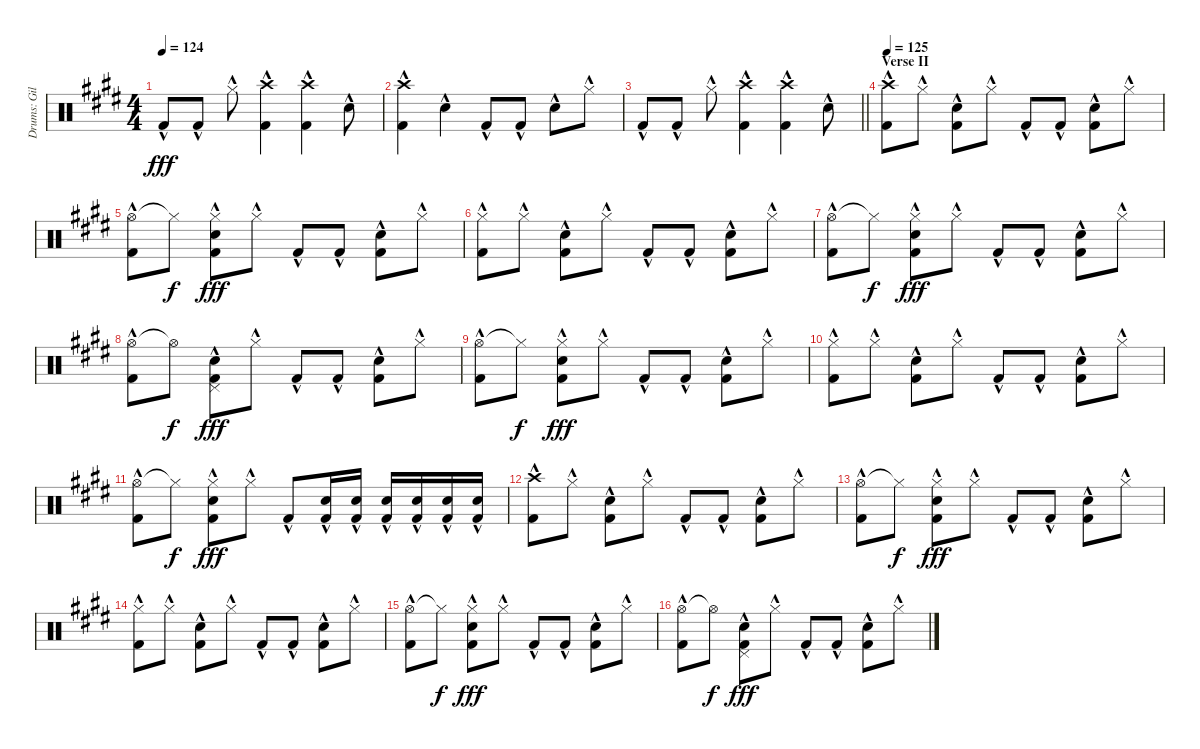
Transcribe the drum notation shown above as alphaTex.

\track ("Drums: Gil" "Drums: Gil") {instrument percussion}
\staff {score}
\articulation defaults
\ts (4 4)
\tempo 124
\clef neutral
\ks e "Kick (hit) 2"{hac}.8{dy fff} "Kick (hit) 2"{hac}.8 "Hi-Hat (closed)"{hac}.8
("Crash high (hit)"{hac} "Kick (hit) 2"{hac}).4 ("Crash high (hit)"{hac} "Kick (hit) 2"{hac}).4 "Snare (hit) 2"{hac}.8 |
("Crash high (hit)"{hac} "Kick (hit) 2"{hac}).4 "Snare (hit) 2"{hac}.4 "Kick (hit) 2"{hac}.8 "Kick (hit) 2"{hac}.8 "Snare (hit) 2"{hac}.8 "Hi-Hat (closed)"{hac}.8 |
\barLineRight lightlight "Kick (hit) 2"{hac}.8 "Kick (hit) 2"{hac}.8 "Hi-Hat (closed)"{hac}.8
("Crash high (hit)"{hac} "Kick (hit) 2"{hac}).4 ("Crash high (hit)"{hac} "Kick (hit) 2"{hac}).4 "Snare (hit) 2"{hac}.8 |
\section ("" "Verse II")
\tempo 125
("Crash high (hit)"{hac} "Kick (hit) 2"{hac}).8 "Hi-Hat (closed)"{hac}.8 ("Snare (hit) 2"{hac} "Kick (hit) 2"{hac}).8 "Hi-Hat (closed)"{hac}.8 "Kick (hit) 2"{hac}.8 "Kick (hit) 2"{hac}.8 ("Snare (hit) 2"{hac} "Kick (hit) 2"{hac}).8 "Hi-Hat (closed)"{hac}.8 |
("Hi-Hat (open)"{hac} "Kick (hit) 2"{hac}).8 "Hi-Hat (closed)"{t}.8{dy f} ("Hi-Hat (closed)"{hac} "Snare (hit) 2"{hac} "Kick (hit) 2"{hac}).8{dy fff} "Hi-Hat (closed)"{hac}.8 "Kick (hit) 2"{hac}.8 "Kick (hit) 2"{hac}.8 ("Snare (hit) 2"{hac} "Kick (hit) 2"{hac}).8 "Hi-Hat (closed)"{hac}.8 |
("Hi-Hat (closed)"{hac} "Kick (hit) 2"{hac}).8 "Hi-Hat (closed)"{hac}.8 ("Snare (hit) 2"{hac} "Kick (hit) 2"{hac}).8 "Hi-Hat (closed)"{hac}.8 "Kick (hit) 2"{hac}.8 "Kick (hit) 2"{hac}.8 ("Snare (hit) 2"{hac} "Kick (hit) 2"{hac}).8 "Hi-Hat (closed)"{hac}.8 |
("Hi-Hat (open)"{hac} "Kick (hit) 2"{hac}).8 "Hi-Hat (closed)"{t}.8{dy f} ("Hi-Hat (closed)"{hac} "Snare (hit) 2"{hac} "Kick (hit) 2"{hac}).8{dy fff} "Hi-Hat (closed)"{hac}.8 "Kick (hit) 2"{hac}.8 "Kick (hit) 2"{hac}.8 ("Snare (hit) 2"{hac} "Kick (hit) 2"{hac}).8 "Hi-Hat (closed)"{hac}.8 |
("Hi-Hat (open)"{hac} "Kick (hit) 2"{hac}).8 "Hi-Hat (open)"{t}.8{dy f} ("Pedal Hi-Hat (hit)"{hac} "Snare (hit) 2"{hac} "Kick (hit) 2"{hac}).8{dy fff} "Hi-Hat (closed)"{hac}.8 "Kick (hit) 2"{hac}.8 "Kick (hit) 2"{hac}.8 ("Snare (hit) 2"{hac} "Kick (hit) 2"{hac}).8 "Hi-Hat (closed)"{hac}.8 |
("Hi-Hat (open)"{hac} "Kick (hit) 2"{hac}).8 "Hi-Hat (closed)"{t}.8{dy f} ("Hi-Hat (closed)"{hac} "Snare (hit) 2"{hac} "Kick (hit) 2"{hac}).8{dy fff} "Hi-Hat (closed)"{hac}.8 "Kick (hit) 2"{hac}.8 "Kick (hit) 2"{hac}.8 ("Snare (hit) 2"{hac} "Kick (hit) 2"{hac}).8 "Hi-Hat (closed)"{hac}.8 |
("Hi-Hat (closed)"{hac} "Kick (hit) 2"{hac}).8 "Hi-Hat (closed)"{hac}.8 ("Snare (hit) 2"{hac} "Kick (hit) 2"{hac}).8 "Hi-Hat (closed)"{hac}.8 "Kick (hit) 2"{hac}.8 "Kick (hit) 2"{hac}.8 ("Snare (hit) 2"{hac} "Kick (hit) 2"{hac}).8 "Hi-Hat (closed)"{hac}.8 |
("Hi-Hat (open)"{hac} "Kick (hit) 2"{hac}).8 "Hi-Hat (closed)"{t}.8{dy f} ("Hi-Hat (closed)"{hac} "Snare (hit) 2"{hac} "Kick (hit) 2"{hac}).8{dy fff} "Hi-Hat (closed)"{hac}.8 "Kick (hit) 2"{hac}.8 ("Snare (hit) 2"{hac} "Kick (hit) 2"{hac}).16 ("Snare (hit) 2"{hac} "Kick (hit) 2"{hac}).16 ("Snare (hit) 2"{hac} "Kick (hit) 2"{hac}).16 ("Snare (hit) 2"{hac} "Kick (hit) 2"{hac}).16 ("Snare (hit) 2"{hac} "Kick (hit) 2"{hac}).16 ("Snare (hit) 2"{hac} "Kick (hit) 2"{hac}).16 |
("Crash high (hit)"{hac} "Kick (hit) 2"{hac}).8 "Hi-Hat (closed)"{hac}.8 ("Snare (hit) 2"{hac} "Kick (hit) 2"{hac}).8 "Hi-Hat (closed)"{hac}.8 "Kick (hit) 2"{hac}.8 "Kick (hit) 2"{hac}.8 ("Snare (hit) 2"{hac} "Kick (hit) 2"{hac}).8 "Hi-Hat (closed)"{hac}.8 |
("Hi-Hat (open)"{hac} "Kick (hit) 2"{hac}).8 "Hi-Hat (closed)"{t}.8{dy f} ("Hi-Hat (closed)"{hac} "Snare (hit) 2"{hac} "Kick (hit) 2"{hac}).8{dy fff} "Hi-Hat (closed)"{hac}.8 "Kick (hit) 2"{hac}.8 "Kick (hit) 2"{hac}.8 ("Snare (hit) 2"{hac} "Kick (hit) 2"{hac}).8 "Hi-Hat (closed)"{hac}.8 |
("Hi-Hat (closed)"{hac} "Kick (hit) 2"{hac}).8 "Hi-Hat (closed)"{hac}.8 ("Snare (hit) 2"{hac} "Kick (hit) 2"{hac}).8 "Hi-Hat (closed)"{hac}.8 "Kick (hit) 2"{hac}.8 "Kick (hit) 2"{hac}.8 ("Snare (hit) 2"{hac} "Kick (hit) 2"{hac}).8 "Hi-Hat (closed)"{hac}.8 |
("Hi-Hat (open)"{hac} "Kick (hit) 2"{hac}).8 "Hi-Hat (closed)"{t}.8{dy f} ("Hi-Hat (closed)"{hac} "Snare (hit) 2"{hac} "Kick (hit) 2"{hac}).8{dy fff} "Hi-Hat (closed)"{hac}.8 "Kick (hit) 2"{hac}.8 "Kick (hit) 2"{hac}.8 ("Snare (hit) 2"{hac} "Kick (hit) 2"{hac}).8 "Hi-Hat (closed)"{hac}.8 |
("Hi-Hat (open)"{hac} "Kick (hit) 2"{hac}).8 "Hi-Hat (open)"{t}.8{dy f} ("Pedal Hi-Hat (hit)"{hac} "Snare (hit) 2"{hac} "Kick (hit) 2"{hac}).8{dy fff} "Hi-Hat (closed)"{hac}.8 "Kick (hit) 2"{hac}.8 "Kick (hit) 2"{hac}.8 ("Snare (hit) 2"{hac} "Kick (hit) 2"{hac}).8 "Hi-Hat (closed)"{hac}.8
